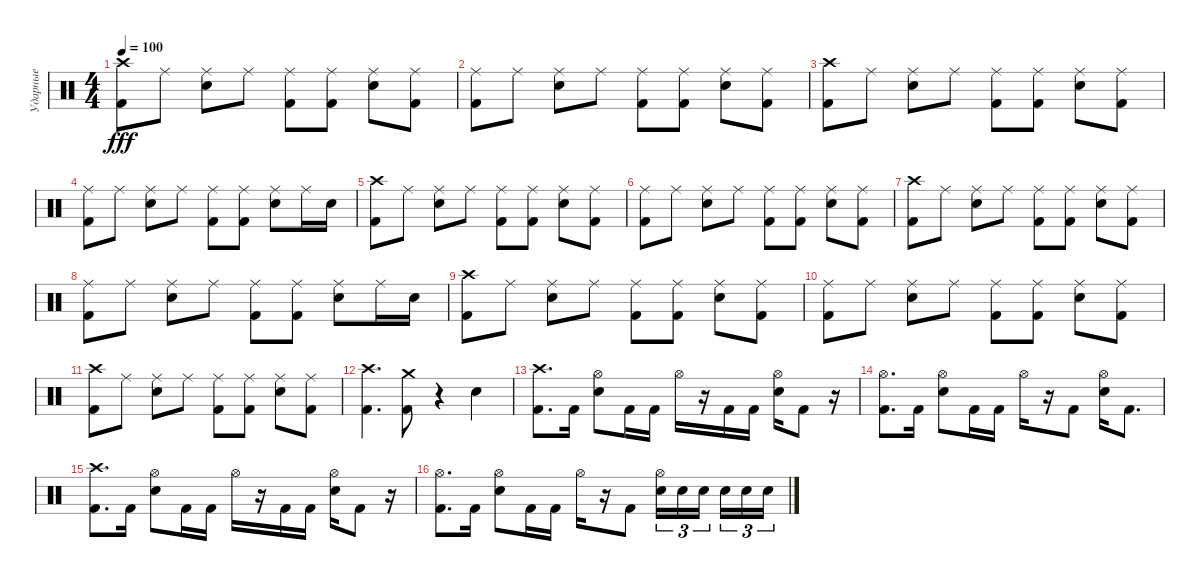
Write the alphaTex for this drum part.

\track ("Ударные" "Ударные") {instrument percussion}
\staff {score}
\articulation defaults
\ts (4 4)
\tempo 100
\clef neutral
\ks c
("Kick (hit) 2" "Crash high (hit)").8{dy fff} "Ride (middle)".8 ("Electric Snare (hit)" "Ride (middle)").8 "Ride (middle)".8 ("Kick (hit) 2" "Ride (middle)").8 ("Kick (hit) 2" "Ride (middle)").8 ("Electric Snare (hit)" "Ride (middle)").8 ("Ride (middle)" "Kick (hit) 2").8 |
("Kick (hit) 2" "Ride (middle)").8 "Ride (middle)".8 ("Electric Snare (hit)" "Ride (middle)").8 "Ride (middle)".8 ("Kick (hit) 2" "Ride (middle)").8 ("Kick (hit) 2" "Ride (middle)").8 ("Electric Snare (hit)" "Ride (middle)").8 ("Ride (middle)" "Kick (hit) 2").8 |
("Kick (hit) 2" "Crash high (hit)").8 "Ride (middle)".8 ("Electric Snare (hit)" "Ride (middle)").8 "Ride (middle)".8 ("Kick (hit) 2" "Ride (middle)").8 ("Kick (hit) 2" "Ride (middle)").8 ("Electric Snare (hit)" "Ride (middle)").8 ("Ride (middle)" "Kick (hit) 2").8 |
("Kick (hit) 2" "Ride (middle)").8 "Ride (middle)".8 ("Electric Snare (hit)" "Ride (middle)").8 "Ride (middle)".8 ("Kick (hit) 2" "Ride (middle)").8 ("Kick (hit) 2" "Ride (middle)").8 ("Electric Snare (hit)" "Ride (middle)").8 "Ride (middle)".16 "Electric Snare (hit)".16 |
("Kick (hit) 2" "Crash high (hit)").8 "Ride (middle)".8 ("Electric Snare (hit)" "Ride (middle)").8 "Ride (middle)".8 ("Kick (hit) 2" "Ride (middle)").8 ("Kick (hit) 2" "Ride (middle)").8 ("Electric Snare (hit)" "Ride (middle)").8 ("Ride (middle)" "Kick (hit) 2").8 |
("Kick (hit) 2" "Ride (middle)").8 "Ride (middle)".8 ("Electric Snare (hit)" "Ride (middle)").8 "Ride (middle)".8 ("Kick (hit) 2" "Ride (middle)").8 ("Kick (hit) 2" "Ride (middle)").8 ("Electric Snare (hit)" "Ride (middle)").8 ("Ride (middle)" "Kick (hit) 2").8 |
("Kick (hit) 2" "Crash high (hit)").8 "Ride (middle)".8 ("Electric Snare (hit)" "Ride (middle)").8 "Ride (middle)".8 ("Kick (hit) 2" "Ride (middle)").8 ("Kick (hit) 2" "Ride (middle)").8 ("Electric Snare (hit)" "Ride (middle)").8 ("Ride (middle)" "Kick (hit) 2").8 |
("Kick (hit) 2" "Ride (middle)").8 "Ride (middle)".8 ("Electric Snare (hit)" "Ride (middle)").8 "Ride (middle)".8 ("Kick (hit) 2" "Ride (middle)").8 ("Kick (hit) 2" "Ride (middle)").8 ("Electric Snare (hit)" "Ride (middle)").8 "Ride (middle)".16 "Electric Snare (hit)".16 |
("Kick (hit) 2" "Crash high (hit)").8 "Ride (middle)".8 ("Electric Snare (hit)" "Ride (middle)").8 "Ride (middle)".8 ("Kick (hit) 2" "Ride (middle)").8 ("Kick (hit) 2" "Ride (middle)").8 ("Electric Snare (hit)" "Ride (middle)").8 ("Ride (middle)" "Kick (hit) 2").8 |
("Kick (hit) 2" "Ride (middle)").8 "Ride (middle)".8 ("Electric Snare (hit)" "Ride (middle)").8 "Ride (middle)".8 ("Kick (hit) 2" "Ride (middle)").8 ("Kick (hit) 2" "Ride (middle)").8 ("Electric Snare (hit)" "Ride (middle)").8 ("Ride (middle)" "Kick (hit) 2").8 |
("Kick (hit) 2" "Crash high (hit)").8 "Ride (middle)".8 ("Electric Snare (hit)" "Ride (middle)").8 "Ride (middle)".8 ("Kick (hit) 2" "Ride (middle)").8 ("Kick (hit) 2" "Ride (middle)").8 ("Electric Snare (hit)" "Ride (middle)").8 ("Ride (middle)" "Kick (hit) 2").8 |
("Kick (hit) 2" "Crash high (hit)").4{d} ("Kick (hit) 2" "Crash medium (hit)").8 r.4 "Electric Snare (hit)".4 |
("Kick (hit) 2" "Crash high (hit)").8{d} "Kick (hit) 2".16 ("Electric Snare (hit)" "Hi-Hat (open)").8 "Kick (hit) 2".16 "Kick (hit) 2".16 "Hi-Hat (open)".16 r.16 "Kick (hit) 2".16 "Kick (hit) 2".16 ("Electric Snare (hit)" "Hi-Hat (open)").16 "Kick (hit) 2".8 r.16 |
("Kick (hit) 2" "Hi-Hat (open)").8{d} "Kick (hit) 2".16 ("Electric Snare (hit)" "Hi-Hat (open)").8 "Kick (hit) 2".16 "Kick (hit) 2".16 "Hi-Hat (open)".16 r.16 "Kick (hit) 2".8 ("Electric Snare (hit)" "Hi-Hat (open)").16 "Kick (hit) 2".8{d} |
("Kick (hit) 2" "Crash high (hit)").8{d} "Kick (hit) 2".16 ("Electric Snare (hit)" "Hi-Hat (open)").8 "Kick (hit) 2".16 "Kick (hit) 2".16 "Hi-Hat (open)".16 r.16 "Kick (hit) 2".16 "Kick (hit) 2".16 ("Electric Snare (hit)" "Hi-Hat (open)").16 "Kick (hit) 2".8 r.16 |
("Kick (hit) 2" "Hi-Hat (open)").8{d} "Kick (hit) 2".16 ("Electric Snare (hit)" "Hi-Hat (open)").8 "Kick (hit) 2".16 "Kick (hit) 2".16 "Hi-Hat (open)".16 r.16 "Kick (hit) 2".8 ("Electric Snare (hit)" "Hi-Hat (open)").16{tu (3 2)} "Electric Snare (hit)".16{tu (3 2)} "Electric Snare (hit)".16{tu (3 2) beam splitsecondary} "Electric Snare (hit)".16{tu (3 2)} "Electric Snare (hit)".16{tu (3 2)} "Electric Snare (hit)".16{tu (3 2)}
